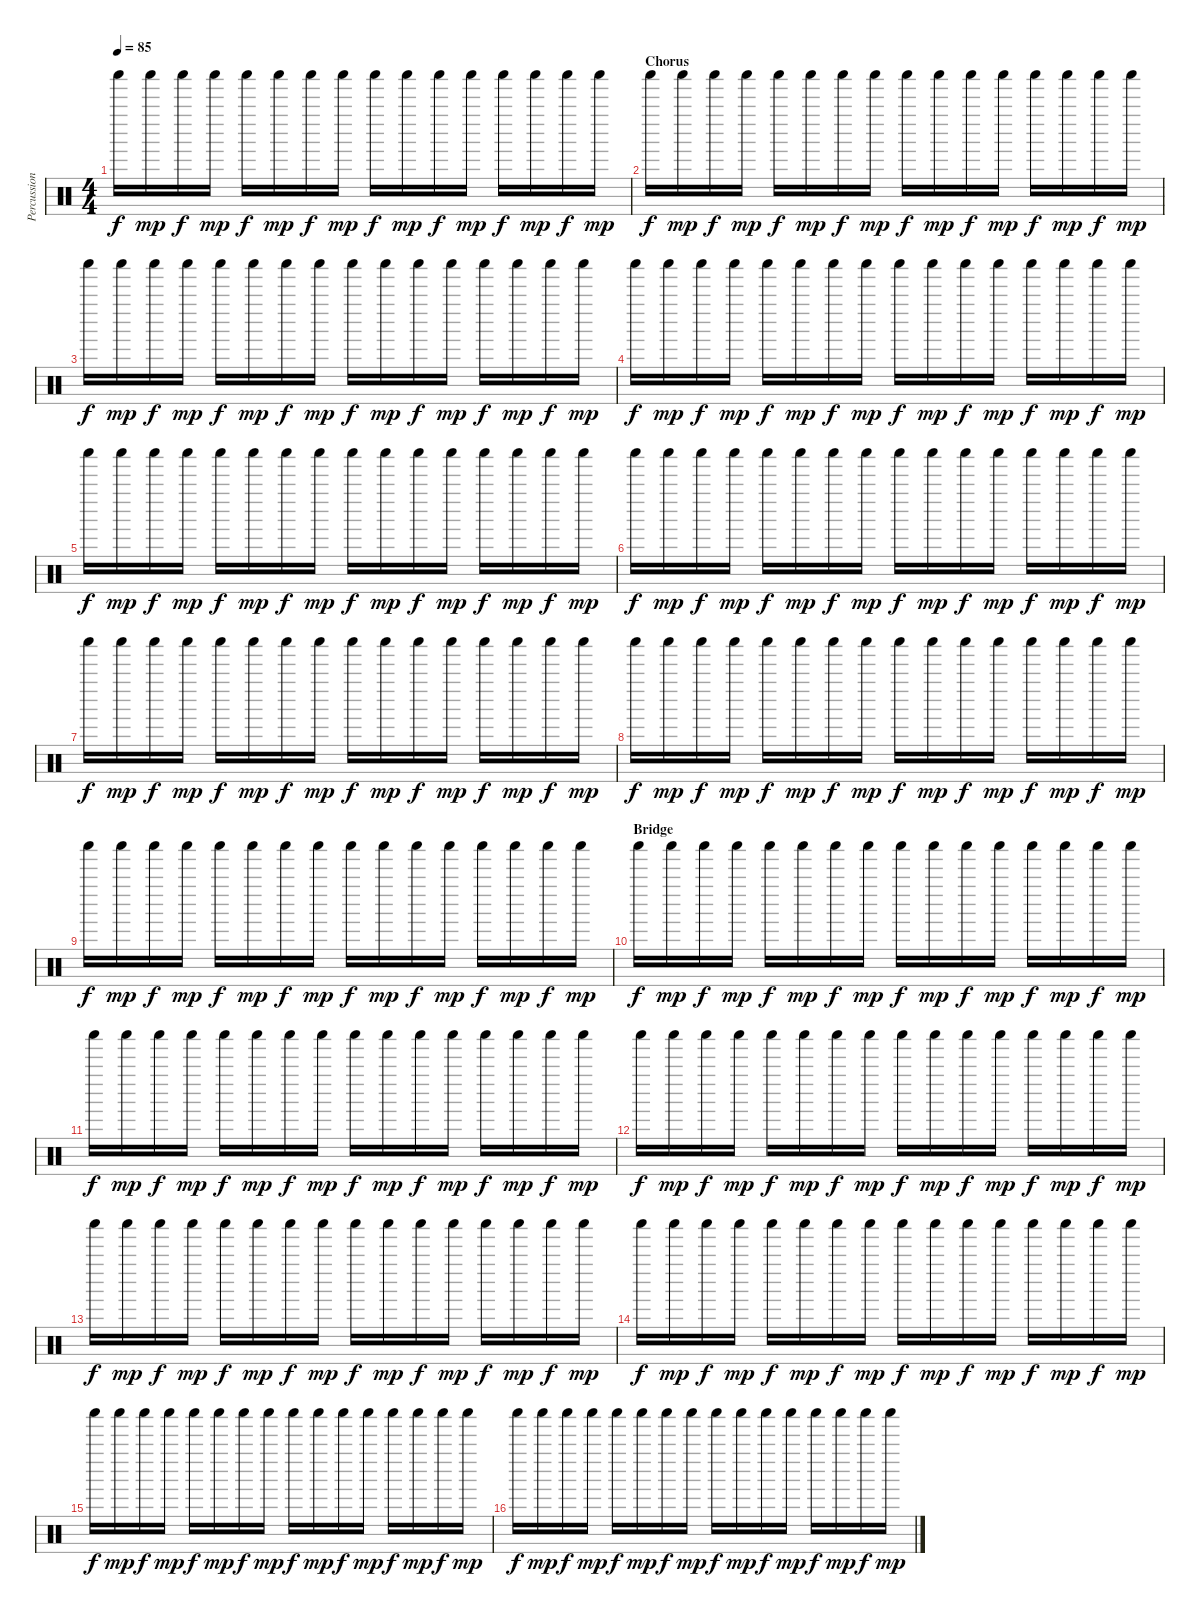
\track ("Percussion" "Percussion") {instrument percussion}
\staff {score}
\articulation defaults
\ts (4 4)
\tempo 85
\clef neutral
\ks c "Shaker (hit)".16{dy f} "Shaker (hit)".16{dy mp} "Shaker (hit)".16{dy f} "Shaker (hit)".16{dy mp} "Shaker (hit)".16{dy f} "Shaker (hit)".16{dy mp} "Shaker (hit)".16{dy f} "Shaker (hit)".16{dy mp} "Shaker (hit)".16{dy f} "Shaker (hit)".16{dy mp} "Shaker (hit)".16{dy f} "Shaker (hit)".16{dy mp} "Shaker (hit)".16{dy f} "Shaker (hit)".16{dy mp} "Shaker (hit)".16{dy f} "Shaker (hit)".16{dy mp}
|
\section ("" "Chorus")
"Shaker (hit)".16{dy f} "Shaker (hit)".16{dy mp} "Shaker (hit)".16{dy f} "Shaker (hit)".16{dy mp} "Shaker (hit)".16{dy f} "Shaker (hit)".16{dy mp} "Shaker (hit)".16{dy f} "Shaker (hit)".16{dy mp} "Shaker (hit)".16{dy f} "Shaker (hit)".16{dy mp} "Shaker (hit)".16{dy f} "Shaker (hit)".16{dy mp} "Shaker (hit)".16{dy f} "Shaker (hit)".16{dy mp} "Shaker (hit)".16{dy f} "Shaker (hit)".16{dy mp} |
"Shaker (hit)".16{dy f} "Shaker (hit)".16{dy mp} "Shaker (hit)".16{dy f} "Shaker (hit)".16{dy mp} "Shaker (hit)".16{dy f} "Shaker (hit)".16{dy mp} "Shaker (hit)".16{dy f} "Shaker (hit)".16{dy mp} "Shaker (hit)".16{dy f} "Shaker (hit)".16{dy mp} "Shaker (hit)".16{dy f} "Shaker (hit)".16{dy mp} "Shaker (hit)".16{dy f} "Shaker (hit)".16{dy mp} "Shaker (hit)".16{dy f} "Shaker (hit)".16{dy mp} |
"Shaker (hit)".16{dy f} "Shaker (hit)".16{dy mp} "Shaker (hit)".16{dy f} "Shaker (hit)".16{dy mp} "Shaker (hit)".16{dy f} "Shaker (hit)".16{dy mp} "Shaker (hit)".16{dy f} "Shaker (hit)".16{dy mp} "Shaker (hit)".16{dy f} "Shaker (hit)".16{dy mp} "Shaker (hit)".16{dy f} "Shaker (hit)".16{dy mp} "Shaker (hit)".16{dy f} "Shaker (hit)".16{dy mp} "Shaker (hit)".16{dy f} "Shaker (hit)".16{dy mp} |
"Shaker (hit)".16{dy f} "Shaker (hit)".16{dy mp} "Shaker (hit)".16{dy f} "Shaker (hit)".16{dy mp} "Shaker (hit)".16{dy f} "Shaker (hit)".16{dy mp} "Shaker (hit)".16{dy f} "Shaker (hit)".16{dy mp} "Shaker (hit)".16{dy f} "Shaker (hit)".16{dy mp} "Shaker (hit)".16{dy f} "Shaker (hit)".16{dy mp} "Shaker (hit)".16{dy f} "Shaker (hit)".16{dy mp} "Shaker (hit)".16{dy f} "Shaker (hit)".16{dy mp} |
"Shaker (hit)".16{dy f} "Shaker (hit)".16{dy mp} "Shaker (hit)".16{dy f} "Shaker (hit)".16{dy mp} "Shaker (hit)".16{dy f} "Shaker (hit)".16{dy mp} "Shaker (hit)".16{dy f} "Shaker (hit)".16{dy mp} "Shaker (hit)".16{dy f} "Shaker (hit)".16{dy mp} "Shaker (hit)".16{dy f} "Shaker (hit)".16{dy mp} "Shaker (hit)".16{dy f} "Shaker (hit)".16{dy mp} "Shaker (hit)".16{dy f} "Shaker (hit)".16{dy mp} |
"Shaker (hit)".16{dy f} "Shaker (hit)".16{dy mp} "Shaker (hit)".16{dy f} "Shaker (hit)".16{dy mp} "Shaker (hit)".16{dy f} "Shaker (hit)".16{dy mp} "Shaker (hit)".16{dy f} "Shaker (hit)".16{dy mp} "Shaker (hit)".16{dy f} "Shaker (hit)".16{dy mp} "Shaker (hit)".16{dy f} "Shaker (hit)".16{dy mp} "Shaker (hit)".16{dy f} "Shaker (hit)".16{dy mp} "Shaker (hit)".16{dy f} "Shaker (hit)".16{dy mp} |
"Shaker (hit)".16{dy f} "Shaker (hit)".16{dy mp} "Shaker (hit)".16{dy f} "Shaker (hit)".16{dy mp} "Shaker (hit)".16{dy f} "Shaker (hit)".16{dy mp} "Shaker (hit)".16{dy f} "Shaker (hit)".16{dy mp} "Shaker (hit)".16{dy f} "Shaker (hit)".16{dy mp} "Shaker (hit)".16{dy f} "Shaker (hit)".16{dy mp} "Shaker (hit)".16{dy f} "Shaker (hit)".16{dy mp} "Shaker (hit)".16{dy f} "Shaker (hit)".16{dy mp} |
"Shaker (hit)".16{dy f} "Shaker (hit)".16{dy mp} "Shaker (hit)".16{dy f} "Shaker (hit)".16{dy mp} "Shaker (hit)".16{dy f} "Shaker (hit)".16{dy mp} "Shaker (hit)".16{dy f} "Shaker (hit)".16{dy mp} "Shaker (hit)".16{dy f} "Shaker (hit)".16{dy mp} "Shaker (hit)".16{dy f} "Shaker (hit)".16{dy mp} "Shaker (hit)".16{dy f} "Shaker (hit)".16{dy mp} "Shaker (hit)".16{dy f} "Shaker (hit)".16{dy mp} |
\section ("" "Bridge")
"Shaker (hit)".16{dy f} "Shaker (hit)".16{dy mp} "Shaker (hit)".16{dy f} "Shaker (hit)".16{dy mp} "Shaker (hit)".16{dy f} "Shaker (hit)".16{dy mp} "Shaker (hit)".16{dy f} "Shaker (hit)".16{dy mp} "Shaker (hit)".16{dy f} "Shaker (hit)".16{dy mp} "Shaker (hit)".16{dy f} "Shaker (hit)".16{dy mp} "Shaker (hit)".16{dy f} "Shaker (hit)".16{dy mp} "Shaker (hit)".16{dy f} "Shaker (hit)".16{dy mp} |
"Shaker (hit)".16{dy f} "Shaker (hit)".16{dy mp} "Shaker (hit)".16{dy f} "Shaker (hit)".16{dy mp} "Shaker (hit)".16{dy f} "Shaker (hit)".16{dy mp} "Shaker (hit)".16{dy f} "Shaker (hit)".16{dy mp} "Shaker (hit)".16{dy f} "Shaker (hit)".16{dy mp} "Shaker (hit)".16{dy f} "Shaker (hit)".16{dy mp} "Shaker (hit)".16{dy f} "Shaker (hit)".16{dy mp} "Shaker (hit)".16{dy f} "Shaker (hit)".16{dy mp} |
"Shaker (hit)".16{dy f} "Shaker (hit)".16{dy mp} "Shaker (hit)".16{dy f} "Shaker (hit)".16{dy mp} "Shaker (hit)".16{dy f} "Shaker (hit)".16{dy mp} "Shaker (hit)".16{dy f} "Shaker (hit)".16{dy mp} "Shaker (hit)".16{dy f} "Shaker (hit)".16{dy mp} "Shaker (hit)".16{dy f} "Shaker (hit)".16{dy mp} "Shaker (hit)".16{dy f} "Shaker (hit)".16{dy mp} "Shaker (hit)".16{dy f} "Shaker (hit)".16{dy mp} |
"Shaker (hit)".16{dy f} "Shaker (hit)".16{dy mp} "Shaker (hit)".16{dy f} "Shaker (hit)".16{dy mp} "Shaker (hit)".16{dy f} "Shaker (hit)".16{dy mp} "Shaker (hit)".16{dy f} "Shaker (hit)".16{dy mp} "Shaker (hit)".16{dy f} "Shaker (hit)".16{dy mp} "Shaker (hit)".16{dy f} "Shaker (hit)".16{dy mp} "Shaker (hit)".16{dy f} "Shaker (hit)".16{dy mp} "Shaker (hit)".16{dy f} "Shaker (hit)".16{dy mp} |
"Shaker (hit)".16{dy f} "Shaker (hit)".16{dy mp} "Shaker (hit)".16{dy f} "Shaker (hit)".16{dy mp} "Shaker (hit)".16{dy f} "Shaker (hit)".16{dy mp} "Shaker (hit)".16{dy f} "Shaker (hit)".16{dy mp} "Shaker (hit)".16{dy f} "Shaker (hit)".16{dy mp} "Shaker (hit)".16{dy f} "Shaker (hit)".16{dy mp} "Shaker (hit)".16{dy f} "Shaker (hit)".16{dy mp} "Shaker (hit)".16{dy f} "Shaker (hit)".16{dy mp} |
"Shaker (hit)".16{dy f} "Shaker (hit)".16{dy mp} "Shaker (hit)".16{dy f} "Shaker (hit)".16{dy mp} "Shaker (hit)".16{dy f} "Shaker (hit)".16{dy mp} "Shaker (hit)".16{dy f} "Shaker (hit)".16{dy mp} "Shaker (hit)".16{dy f} "Shaker (hit)".16{dy mp} "Shaker (hit)".16{dy f} "Shaker (hit)".16{dy mp} "Shaker (hit)".16{dy f} "Shaker (hit)".16{dy mp} "Shaker (hit)".16{dy f} "Shaker (hit)".16{dy mp} |
"Shaker (hit)".16{dy f} "Shaker (hit)".16{dy mp} "Shaker (hit)".16{dy f} "Shaker (hit)".16{dy mp} "Shaker (hit)".16{dy f} "Shaker (hit)".16{dy mp} "Shaker (hit)".16{dy f} "Shaker (hit)".16{dy mp} "Shaker (hit)".16{dy f} "Shaker (hit)".16{dy mp} "Shaker (hit)".16{dy f} "Shaker (hit)".16{dy mp} "Shaker (hit)".16{dy f} "Shaker (hit)".16{dy mp} "Shaker (hit)".16{dy f} "Shaker (hit)".16{dy mp}
